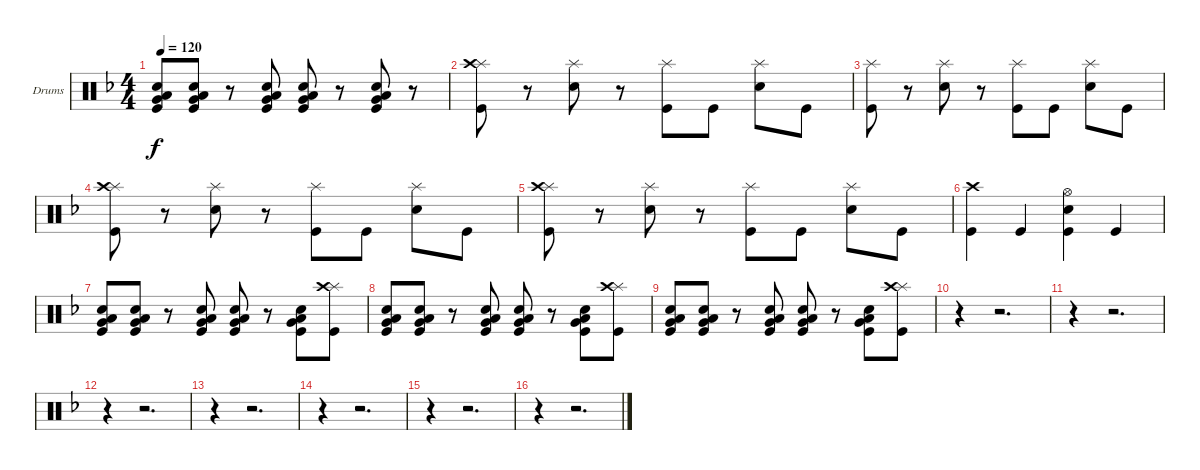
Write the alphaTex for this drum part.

\bracketExtendMode groupsimilarinstruments
\firstSystemTrackNameOrientation horizontal
\otherSystemsTrackNameOrientation horizontal
\track ("Drumkit" "Drums") {instrument percussion}
\staff {score}
\articulation defaults
\ts (4 4)
\tempo 120
\clef neutral
\ks f
("Snare (hit) 2" "Very Low Tom (hit)" "Low Tom (hit)" "Kick (hit)").8{dy f} ("Snare (hit) 2" "Very Low Tom (hit)" "Low Tom (hit)" "Kick (hit)").8 r.8 ("Snare (hit) 2" "Very Low Tom (hit)" "Low Tom (hit)" "Kick (hit)").8 ("Snare (hit) 2" "Very Low Tom (hit)" "Low Tom (hit)" "Kick (hit)").8 r.8 ("Snare (hit) 2" "Very Low Tom (hit)" "Low Tom (hit)" "Kick (hit)").8 r.8 |
("Splash (hit)" "Crash high (hit)" "Kick (hit)").8 r.8 ("Splash (hit)" "Snare (hit) 2").8 r.8 ("Splash (hit)" "Kick (hit)").8 "Kick (hit)".8 ("Splash (hit)" "Snare (hit) 2").8 "Kick (hit)".8 |
("Splash (hit)" "Kick (hit)").8 r.8 ("Splash (hit)" "Snare (hit) 2").8 r.8 ("Splash (hit)" "Kick (hit)").8 "Kick (hit)".8 ("Splash (hit)" "Snare (hit) 2").8 "Kick (hit)".8 |
("Splash (hit)" "Crash high (hit)" "Kick (hit)").8 r.8 ("Splash (hit)" "Snare (hit) 2").8 r.8 ("Splash (hit)" "Kick (hit)").8 "Kick (hit)".8 ("Splash (hit)" "Snare (hit) 2").8 "Kick (hit)".8 |
("Splash (hit)" "Crash high (hit)" "Kick (hit)").8 r.8 ("Splash (hit)" "Snare (hit) 2").8 r.8 ("Splash (hit)" "Kick (hit)").8 "Kick (hit)".8 ("Splash (hit)" "Snare (hit) 2").8 "Kick (hit)".8 |
("Crash high (hit)" "Kick (hit)").4 "Kick (hit)".4 ("Hi-Hat (open)" "Snare (hit) 2" "Kick (hit)").4 "Kick (hit)".4 |
("Snare (hit) 2" "Very Low Tom (hit)" "Low Tom (hit)" "Kick (hit)").8 ("Snare (hit) 2" "Very Low Tom (hit)" "Low Tom (hit)" "Kick (hit)").8 r.8 ("Snare (hit) 2" "Very Low Tom (hit)" "Low Tom (hit)" "Kick (hit)").8 ("Snare (hit) 2" "Very Low Tom (hit)" "Low Tom (hit)" "Kick (hit)").8 r.8 ("Snare (hit) 2" "Very Low Tom (hit)" "Low Tom (hit)" "Kick (hit)").8 ("Splash (hit)" "Crash high (hit)" "Kick (hit)").8 |
("Snare (hit) 2" "Very Low Tom (hit)" "Low Tom (hit)" "Kick (hit)").8 ("Snare (hit) 2" "Very Low Tom (hit)" "Low Tom (hit)" "Kick (hit)").8 r.8 ("Snare (hit) 2" "Very Low Tom (hit)" "Low Tom (hit)" "Kick (hit)").8 ("Snare (hit) 2" "Very Low Tom (hit)" "Low Tom (hit)" "Kick (hit)").8 r.8 ("Snare (hit) 2" "Very Low Tom (hit)" "Low Tom (hit)" "Kick (hit)").8 ("Splash (hit)" "Crash high (hit)" "Kick (hit)").8 |
("Snare (hit) 2" "Very Low Tom (hit)" "Low Tom (hit)" "Kick (hit)").8 ("Snare (hit) 2" "Very Low Tom (hit)" "Low Tom (hit)" "Kick (hit)").8 r.8 ("Snare (hit) 2" "Very Low Tom (hit)" "Low Tom (hit)" "Kick (hit)").8 ("Snare (hit) 2" "Very Low Tom (hit)" "Low Tom (hit)" "Kick (hit)").8 r.8 ("Snare (hit) 2" "Very Low Tom (hit)" "Low Tom (hit)" "Kick (hit)").8 ("Splash (hit)" "Crash high (hit)" "Kick (hit)").8 |
r.4 r.2{d} |
r.4 r.2{d} |
r.4 r.2{d} |
r.4 r.2{d} |
r.4 r.2{d} |
r.4 r.2{d} |
r.4 r.2{d}
